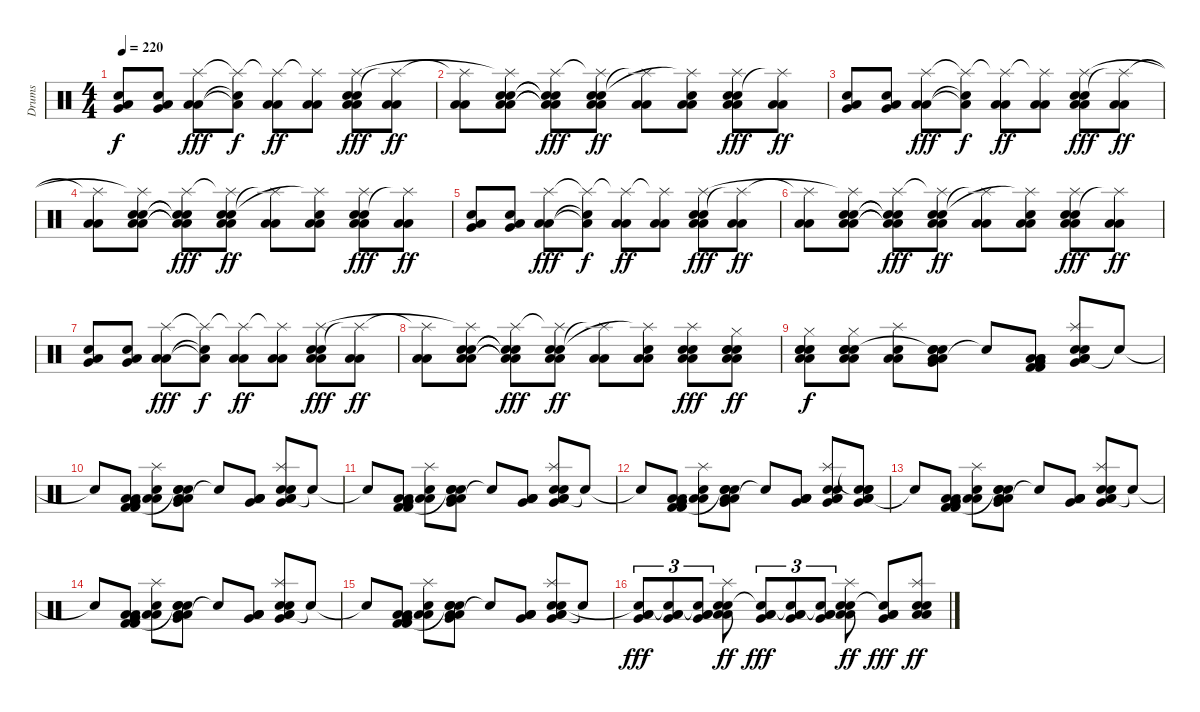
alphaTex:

\track ("Drums" "Drums") {instrument percussion}
\staff {score}
\articulation defaults
\ts (4 4)
\tempo 220
\clef neutral
\ks c
("Very Low Tom (hit)" "Electric Snare (hit)" "Low Floor Tom (hit)").8{dy f} ("Very Low Tom (hit)" "Electric Snare (hit)" "Low Floor Tom (hit)").8 ("Low Floor Tom (hit)" "Low Floor Tom (hit)" "Splash (hit)").8{dy fff} ("Low Floor Tom (hit)"{t} "Snare (hit)"{t} "Splash (hit)"{t}).8{dy f} ("Low Floor Tom (hit)" "Low Floor Tom (hit)" "Splash (hit)"{t}).8{dy ff} ("Low Floor Tom (hit)" "Low Floor Tom (hit)" "Splash (hit)"{t}).8 ("Low Floor Tom (hit)" "Low Floor Tom (hit)" "Electric Snare (hit)" "Snare (hit) 2" "Splash (hit)").8{dy fff} ("Low Floor Tom (hit)" "Low Floor Tom (hit)" "Splash (hit)"{t}).8{dy ff} |
("Low Floor Tom (hit)" "Low Floor Tom (hit)" "Splash (hit)"{t}).8 ("Low Floor Tom (hit)" "Low Floor Tom (hit)" "Electric Snare (hit)" "Snare (hit) 2" "Splash (hit)"{t}).8 ("Low Floor Tom (hit)"{t} "Low Floor Tom (hit)"{t} "Electric Snare (hit)"{t} "Snare (hit) 2"{t} "Splash (hit)").8{dy fff} ("Low Floor Tom (hit)" "Low Floor Tom (hit)" "Electric Snare (hit)" "Snare (hit) 2" "Splash (hit)"{t}).8{dy ff} ("Low Floor Tom (hit)" "Low Floor Tom (hit)" "Splash (hit)"{t}).8 ("Low Floor Tom (hit)" "Low Floor Tom (hit)" "Electric Snare (hit)" "Splash (hit)"{t}).8 ("Low Floor Tom (hit)" "Low Floor Tom (hit)" "Electric Snare (hit)" "Snare (hit) 2" "Splash (hit)").8{dy fff} ("Low Floor Tom (hit)" "Low Floor Tom (hit)" "Splash (hit)"{t}).8{dy ff} |
("Very Low Tom (hit)" "Electric Snare (hit)" "Low Floor Tom (hit)").8 ("Very Low Tom (hit)" "Electric Snare (hit)" "Low Floor Tom (hit)").8 ("Low Floor Tom (hit)" "Low Floor Tom (hit)" "Splash (hit)").8{dy fff} ("Low Floor Tom (hit)"{t} "Snare (hit)"{t} "Splash (hit)"{t}).8{dy f} ("Low Floor Tom (hit)" "Low Floor Tom (hit)" "Splash (hit)"{t}).8{dy ff} ("Low Floor Tom (hit)" "Low Floor Tom (hit)" "Splash (hit)"{t}).8 ("Low Floor Tom (hit)" "Low Floor Tom (hit)" "Electric Snare (hit)" "Snare (hit) 2" "Splash (hit)").8{dy fff} ("Low Floor Tom (hit)" "Low Floor Tom (hit)" "Splash (hit)"{t}).8{dy ff} |
("Low Floor Tom (hit)" "Low Floor Tom (hit)" "Splash (hit)"{t}).8 ("Low Floor Tom (hit)" "Low Floor Tom (hit)" "Electric Snare (hit)" "Snare (hit) 2" "Splash (hit)"{t}).8 ("Low Floor Tom (hit)"{t} "Low Floor Tom (hit)"{t} "Electric Snare (hit)"{t} "Snare (hit) 2"{t} "Splash (hit)").8{dy fff} ("Low Floor Tom (hit)" "Low Floor Tom (hit)" "Electric Snare (hit)" "Snare (hit) 2" "Splash (hit)"{t}).8{dy ff} ("Low Floor Tom (hit)" "Low Floor Tom (hit)" "Splash (hit)"{t}).8 ("Low Floor Tom (hit)" "Low Floor Tom (hit)" "Electric Snare (hit)" "Splash (hit)"{t}).8 ("Low Floor Tom (hit)" "Low Floor Tom (hit)" "Electric Snare (hit)" "Snare (hit) 2" "Splash (hit)").8{dy fff} ("Low Floor Tom (hit)" "Low Floor Tom (hit)" "Splash (hit)"{t}).8{dy ff} |
("Very Low Tom (hit)" "Electric Snare (hit)" "Low Floor Tom (hit)").8 ("Very Low Tom (hit)" "Electric Snare (hit)" "Low Floor Tom (hit)").8 ("Low Floor Tom (hit)" "Low Floor Tom (hit)" "Splash (hit)").8{dy fff} ("Low Floor Tom (hit)"{t} "Snare (hit)"{t} "Splash (hit)"{t}).8{dy f} ("Low Floor Tom (hit)" "Low Floor Tom (hit)" "Splash (hit)"{t}).8{dy ff} ("Low Floor Tom (hit)" "Low Floor Tom (hit)" "Splash (hit)"{t}).8 ("Low Floor Tom (hit)" "Low Floor Tom (hit)" "Electric Snare (hit)" "Snare (hit) 2" "Splash (hit)").8{dy fff} ("Low Floor Tom (hit)" "Low Floor Tom (hit)" "Splash (hit)"{t}).8{dy ff} |
("Low Floor Tom (hit)" "Low Floor Tom (hit)" "Splash (hit)"{t}).8 ("Low Floor Tom (hit)" "Low Floor Tom (hit)" "Electric Snare (hit)" "Snare (hit) 2" "Splash (hit)"{t}).8 ("Low Floor Tom (hit)"{t} "Low Floor Tom (hit)"{t} "Electric Snare (hit)"{t} "Snare (hit) 2"{t} "Splash (hit)").8{dy fff} ("Low Floor Tom (hit)" "Low Floor Tom (hit)" "Electric Snare (hit)" "Snare (hit) 2" "Splash (hit)"{t}).8{dy ff} ("Low Floor Tom (hit)" "Low Floor Tom (hit)" "Splash (hit)"{t}).8 ("Low Floor Tom (hit)" "Low Floor Tom (hit)" "Electric Snare (hit)" "Splash (hit)"{t}).8 ("Low Floor Tom (hit)" "Low Floor Tom (hit)" "Electric Snare (hit)" "Snare (hit) 2" "Splash (hit)").8{dy fff} ("Low Floor Tom (hit)" "Low Floor Tom (hit)" "Splash (hit)"{t}).8{dy ff} |
("Very Low Tom (hit)" "Electric Snare (hit)" "Low Floor Tom (hit)").8 ("Very Low Tom (hit)" "Electric Snare (hit)" "Low Floor Tom (hit)").8 ("Low Floor Tom (hit)" "Low Floor Tom (hit)" "Splash (hit)").8{dy fff} ("Low Floor Tom (hit)"{t} "Snare (hit)"{t} "Splash (hit)"{t}).8{dy f} ("Low Floor Tom (hit)" "Low Floor Tom (hit)" "Splash (hit)"{t}).8{dy ff} ("Low Floor Tom (hit)" "Low Floor Tom (hit)" "Splash (hit)"{t}).8 ("Low Floor Tom (hit)" "Low Floor Tom (hit)" "Electric Snare (hit)" "Snare (hit) 2" "Splash (hit)").8{dy fff} ("Low Floor Tom (hit)" "Low Floor Tom (hit)" "Splash (hit)"{t}).8{dy ff} |
("Low Floor Tom (hit)" "Low Floor Tom (hit)" "Splash (hit)"{t}).8 ("Low Floor Tom (hit)" "Low Floor Tom (hit)" "Electric Snare (hit)" "Snare (hit) 2" "Splash (hit)"{t}).8 ("Low Floor Tom (hit)"{t} "Low Floor Tom (hit)"{t} "Electric Snare (hit)"{t} "Snare (hit) 2"{t} "Splash (hit)").8{dy fff} ("Low Floor Tom (hit)" "Low Floor Tom (hit)" "Electric Snare (hit)" "Snare (hit) 2" "Splash (hit)"{t}).8{dy ff} ("Low Floor Tom (hit)" "Low Floor Tom (hit)" "Splash (hit)"{t}).8 ("Low Floor Tom (hit)" "Low Floor Tom (hit)" "Electric Snare (hit)" "Splash (hit)"{t}).8 ("Low Floor Tom (hit)" "Low Floor Tom (hit)" "Electric Snare (hit)" "Snare (hit) 2" "Splash (hit)").8{dy fff} ("Low Floor Tom (hit)" "Low Floor Tom (hit)" "Electric Snare (hit)" "Snare (hit) 2" "Electric Snare (hit)" "Hi-Hat (closed)").8{dy ff} |
("Low Floor Tom (hit)" "Low Floor Tom (hit)" "Electric Snare (hit)" "Snare (hit) 2" "Electric Snare (hit)" "Hi-Hat (closed)").8{dy f} ("Low Floor Tom (hit)" "Low Floor Tom (hit)" "Electric Snare (hit)" "Snare (hit) 2" "Electric Snare (hit)" "Hi-Hat (closed)").8 ("Low Floor Tom (hit)" "Low Floor Tom (hit)" "Electric Snare (hit)" "Splash (hit)").8 ("Low Floor Tom (hit)" "Low Floor Tom (hit)" "Electric Snare (hit)" "Snare (hit) 2" "Snare (hit)"{t} "Very Low Tom (hit)").8 "Snare (hit)"{t}.8 ("Low Floor Tom (hit)" "Low Floor Tom (hit)" "Low Tom (hit)" "Kick (hit) 2" "Kick (hit) 2" "Very Low Tom (hit)").8 ("Low Floor Tom (hit)" "Low Floor Tom (hit)" "Electric Snare (hit)" "Snare (hit) 2" "Splash (hit)" "Very Low Tom (hit)").8 "Snare (hit)"{t}.8 |
"Snare (hit)"{t}.8 ("Low Floor Tom (hit)" "Very Low Tom (hit)" "Low Tom (hit)" "Kick (hit) 2" "Kick (hit) 2" "Very Low Tom (hit)").8 ("Low Floor Tom (hit)" "Low Floor Tom (hit)" "Electric Snare (hit)" "Splash (hit)").8 ("Low Floor Tom (hit)" "Low Floor Tom (hit)" "Electric Snare (hit)" "Snare (hit) 2" "Snare (hit)"{t} "Very Low Tom (hit)").8 "Snare (hit)"{t}.8 ("Low Floor Tom (hit)" "Low Floor Tom (hit)" "Low Tom (hit)" "Very Low Tom (hit)").8 ("Low Floor Tom (hit)" "Low Floor Tom (hit)" "Electric Snare (hit)" "Snare (hit) 2" "Splash (hit)" "Very Low Tom (hit)").8 "Snare (hit)"{t}.8 |
"Snare (hit)"{t}.8 ("Low Floor Tom (hit)" "Very Low Tom (hit)" "Low Tom (hit)" "Kick (hit) 2" "Kick (hit) 2" "Very Low Tom (hit)").8 ("Low Floor Tom (hit)" "Low Floor Tom (hit)" "Electric Snare (hit)" "Splash (hit)").8 ("Low Floor Tom (hit)" "Low Floor Tom (hit)" "Electric Snare (hit)" "Snare (hit) 2" "Snare (hit)"{t} "Very Low Tom (hit)").8 "Snare (hit)"{t}.8 ("Low Floor Tom (hit)" "Low Floor Tom (hit)" "Low Tom (hit)" "Very Low Tom (hit)").8 ("Low Floor Tom (hit)" "Low Floor Tom (hit)" "Electric Snare (hit)" "Snare (hit) 2" "Splash (hit)" "Very Low Tom (hit)").8 "Snare (hit)"{t}.8 |
"Snare (hit)"{t}.8 ("Low Floor Tom (hit)" "Very Low Tom (hit)" "Low Tom (hit)" "Kick (hit) 2" "Kick (hit) 2" "Very Low Tom (hit)").8 ("Low Floor Tom (hit)" "Low Floor Tom (hit)" "Electric Snare (hit)" "Splash (hit)").8 ("Low Floor Tom (hit)" "Low Floor Tom (hit)" "Electric Snare (hit)" "Snare (hit) 2" "Snare (hit)"{t} "Very Low Tom (hit)").8 "Snare (hit)"{t}.8 ("Low Floor Tom (hit)" "Low Floor Tom (hit)" "Low Tom (hit)" "Very Low Tom (hit)").8 ("Low Floor Tom (hit)" "Low Floor Tom (hit)" "Electric Snare (hit)" "Snare (hit) 2" "Splash (hit)" "Very Low Tom (hit)").8 ("Low Floor Tom (hit)" "Low Floor Tom (hit)" "Electric Snare (hit)" "Snare (hit) 2" "Snare (hit)"{t} "Very Low Tom (hit)").8 |
"Snare (hit)"{t}.8 ("Low Floor Tom (hit)" "Very Low Tom (hit)" "Low Tom (hit)" "Kick (hit) 2" "Kick (hit) 2" "Very Low Tom (hit)").8 ("Low Floor Tom (hit)" "Low Floor Tom (hit)" "Electric Snare (hit)" "Splash (hit)").8 ("Low Floor Tom (hit)" "Low Floor Tom (hit)" "Electric Snare (hit)" "Snare (hit) 2" "Snare (hit)"{t} "Very Low Tom (hit)").8 "Snare (hit)"{t}.8 ("Low Floor Tom (hit)" "Low Floor Tom (hit)" "Low Tom (hit)" "Very Low Tom (hit)").8 ("Low Floor Tom (hit)" "Low Floor Tom (hit)" "Electric Snare (hit)" "Snare (hit) 2" "Splash (hit)" "Very Low Tom (hit)").8 "Snare (hit)"{t}.8 |
"Snare (hit)"{t}.8 ("Low Floor Tom (hit)" "Very Low Tom (hit)" "Low Tom (hit)" "Kick (hit) 2" "Kick (hit) 2" "Very Low Tom (hit)").8 ("Low Floor Tom (hit)" "Low Floor Tom (hit)" "Electric Snare (hit)" "Splash (hit)").8 ("Low Floor Tom (hit)" "Low Floor Tom (hit)" "Electric Snare (hit)" "Snare (hit) 2" "Snare (hit)"{t} "Very Low Tom (hit)").8 "Snare (hit)"{t}.8 ("Low Floor Tom (hit)" "Low Floor Tom (hit)" "Low Tom (hit)" "Very Low Tom (hit)").8 ("Low Floor Tom (hit)" "Low Floor Tom (hit)" "Electric Snare (hit)" "Snare (hit) 2" "Splash (hit)" "Very Low Tom (hit)").8 "Snare (hit)"{t}.8 |
"Snare (hit)"{t}.8 ("Low Floor Tom (hit)" "Very Low Tom (hit)" "Low Tom (hit)" "Kick (hit) 2" "Kick (hit) 2" "Very Low Tom (hit)").8 ("Low Floor Tom (hit)" "Low Floor Tom (hit)" "Electric Snare (hit)" "Splash (hit)").8 ("Low Floor Tom (hit)" "Low Floor Tom (hit)" "Electric Snare (hit)" "Snare (hit) 2" "Snare (hit)"{t} "Very Low Tom (hit)").8 "Snare (hit)"{t}.8 ("Low Floor Tom (hit)" "Low Floor Tom (hit)" "Low Tom (hit)" "Very Low Tom (hit)").8 ("Low Floor Tom (hit)" "Low Floor Tom (hit)" "Electric Snare (hit)" "Snare (hit) 2" "Splash (hit)" "Very Low Tom (hit)").8 "Snare (hit)"{t}.8 |
("Low Floor Tom (hit)" "Low Floor Tom (hit)" "Very Low Tom (hit)" "Snare (hit)"{t}).8{tu (3 2) dy fff} ("Low Floor Tom (hit)" "Low Floor Tom (hit)" "Very Low Tom (hit)" "Snare (hit)"{t}).8{tu (3 2)} ("Low Floor Tom (hit)" "Low Floor Tom (hit)" "Very Low Tom (hit)" "Snare (hit)"{t}).8{tu (3 2)} ("Low Floor Tom (hit)" "Low Floor Tom (hit)" "Electric Snare (hit)" "Snare (hit) 2" "Splash (hit)").8{dy ff} ("Low Floor Tom (hit)" "Low Floor Tom (hit)" "Very Low Tom (hit)" "Snare (hit)"{t}).8{tu (3 2) dy fff} ("Low Floor Tom (hit)" "Low Floor Tom (hit)" "Very Low Tom (hit)" "Snare (hit)"{t}).8{tu (3 2)} ("Low Floor Tom (hit)" "Low Floor Tom (hit)" "Very Low Tom (hit)" "Snare (hit)"{t}).8{tu (3 2)} ("Low Floor Tom (hit)" "Low Floor Tom (hit)" "Electric Snare (hit)" "Snare (hit) 2" "Splash (hit)").8{dy ff} ("Low Floor Tom (hit)" "Low Floor Tom (hit)" "Very Low Tom (hit)" "Snare (hit)"{t}).8{dy fff} ("Low Floor Tom (hit)" "Low Floor Tom (hit)" "Electric Snare (hit)" "Snare (hit) 2" "Splash (hit)").8{dy ff}
